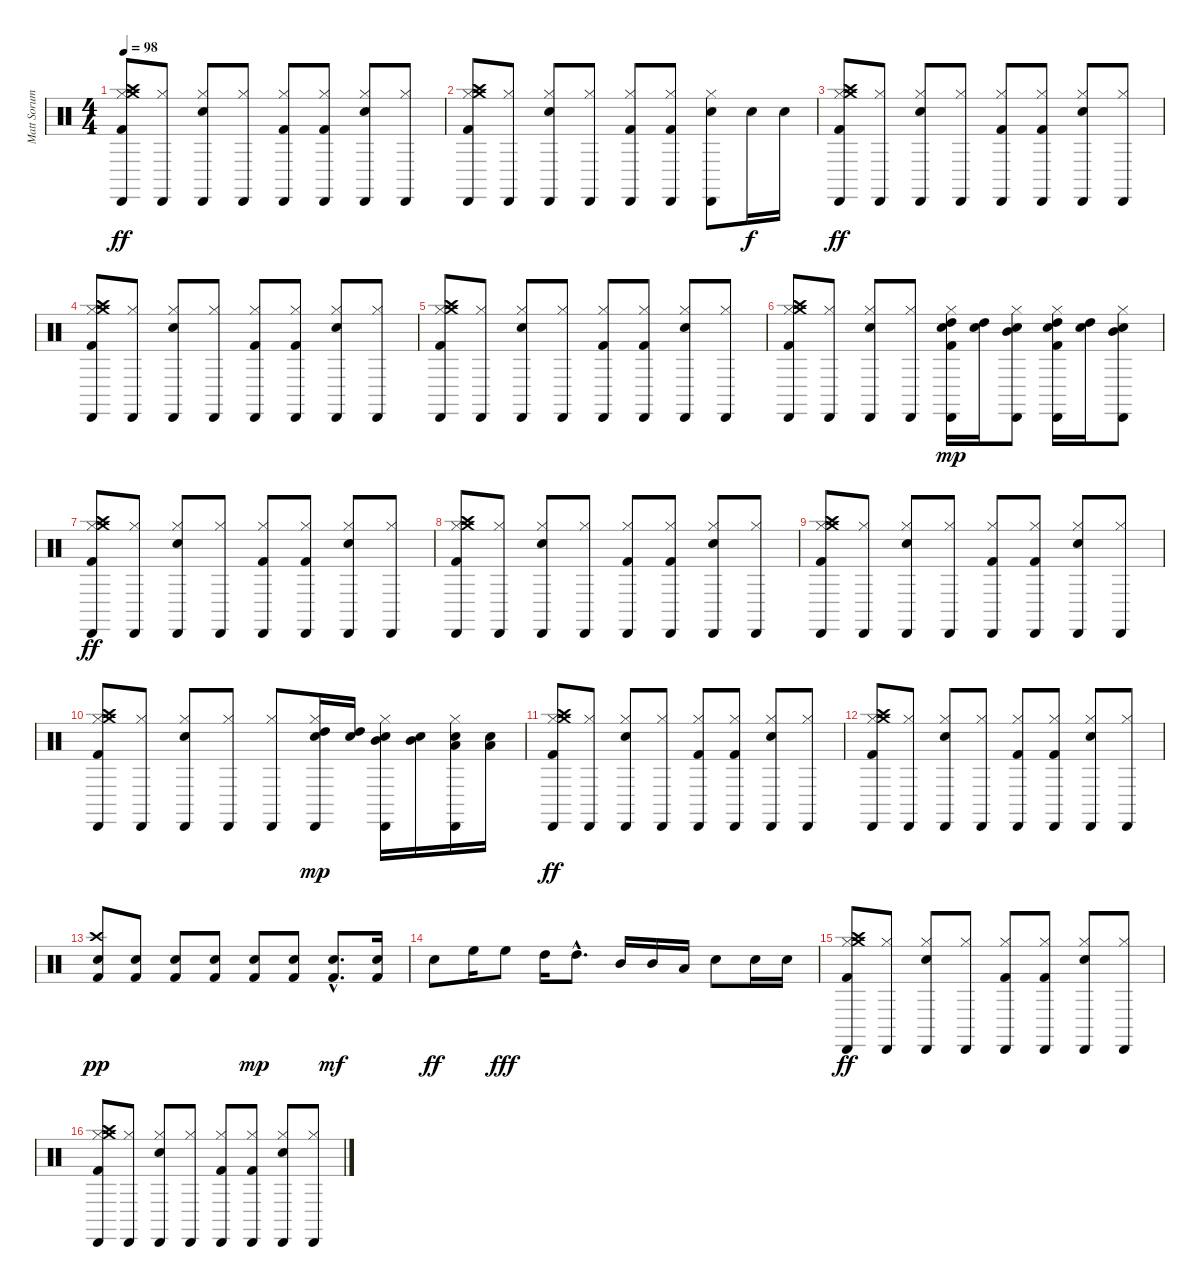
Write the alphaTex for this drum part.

\track ("Matt Sorum" "Matt Sorum") {instrument percussion}
\staff {score}
\articulation defaults
\ts (4 4)
\tempo 98
\clef neutral
\ks c
("Kick (hit) 2" "Hi-Hat (closed)" "Cabasa (hit)" "Crash medium (hit)" "Crash high (hit)").8{dy ff} ("Hi-Hat (closed)" "Cabasa (hit)").8 ("Snare (hit) 2" "Hi-Hat (closed)" "Cabasa (hit)").8 ("Hi-Hat (closed)" "Cabasa (hit)").8 ("Kick (hit) 2" "Hi-Hat (closed)" "Cabasa (hit)").8 ("Kick (hit) 2" "Hi-Hat (closed)" "Cabasa (hit)").8 ("Snare (hit) 2" "Hi-Hat (closed)" "Cabasa (hit)").8 ("Hi-Hat (closed)" "Cabasa (hit)").8 |
("Kick (hit) 2" "Hi-Hat (closed)" "Cabasa (hit)" "Crash medium (hit)" "Crash high (hit)").8 ("Hi-Hat (closed)" "Cabasa (hit)").8 ("Snare (hit) 2" "Hi-Hat (closed)" "Cabasa (hit)").8 ("Hi-Hat (closed)" "Cabasa (hit)").8 ("Kick (hit) 2" "Hi-Hat (closed)" "Cabasa (hit)").8 ("Kick (hit) 2" "Hi-Hat (closed)" "Cabasa (hit)").8 ("Snare (hit) 2" "Hi-Hat (closed)" "Cabasa (hit)").8 "Snare (hit) 2".16{dy f} "Snare (hit) 2".16 |
("Kick (hit) 2" "Hi-Hat (closed)" "Cabasa (hit)" "Crash medium (hit)" "Crash high (hit)").8{dy ff} ("Hi-Hat (closed)" "Cabasa (hit)").8 ("Snare (hit) 2" "Hi-Hat (closed)" "Cabasa (hit)").8 ("Hi-Hat (closed)" "Cabasa (hit)").8 ("Kick (hit) 2" "Hi-Hat (closed)" "Cabasa (hit)").8 ("Kick (hit) 2" "Hi-Hat (closed)" "Cabasa (hit)").8 ("Snare (hit) 2" "Hi-Hat (closed)" "Cabasa (hit)").8 ("Hi-Hat (closed)" "Cabasa (hit)").8 |
("Kick (hit) 2" "Hi-Hat (closed)" "Cabasa (hit)" "Crash medium (hit)" "Crash high (hit)").8 ("Hi-Hat (closed)" "Cabasa (hit)").8 ("Snare (hit) 2" "Hi-Hat (closed)" "Cabasa (hit)").8 ("Hi-Hat (closed)" "Cabasa (hit)").8 ("Kick (hit) 2" "Hi-Hat (closed)" "Cabasa (hit)").8 ("Kick (hit) 2" "Hi-Hat (closed)" "Cabasa (hit)").8 ("Snare (hit) 2" "Hi-Hat (closed)" "Cabasa (hit)").8 ("Hi-Hat (closed)" "Cabasa (hit)").8 |
("Kick (hit) 2" "Hi-Hat (closed)" "Cabasa (hit)" "Crash medium (hit)" "Crash high (hit)").8 ("Hi-Hat (closed)" "Cabasa (hit)").8 ("Snare (hit) 2" "Hi-Hat (closed)" "Cabasa (hit)").8 ("Hi-Hat (closed)" "Cabasa (hit)").8 ("Kick (hit) 2" "Hi-Hat (closed)" "Cabasa (hit)").8 ("Kick (hit) 2" "Hi-Hat (closed)" "Cabasa (hit)").8 ("Snare (hit) 2" "Hi-Hat (closed)" "Cabasa (hit)").8 ("Hi-Hat (closed)" "Cabasa (hit)").8 |
("Kick (hit) 2" "Hi-Hat (closed)" "Cabasa (hit)" "Crash medium (hit)" "Crash high (hit)").8 ("Hi-Hat (closed)" "Cabasa (hit)").8 ("Snare (hit) 2" "Hi-Hat (closed)" "Cabasa (hit)").8 ("Hi-Hat (closed)" "Cabasa (hit)").8 ("Kick (hit) 2" "High Tom (hit)" "Hi-Hat (closed)" "Cabasa (hit)" "Snare (hit) 2").16{dy mp} ("High Tom (hit)" "Snare (hit) 2").16 ("Mid Tom (hit)" "Hi-Hat (closed)" "Cabasa (hit)" "Snare (hit) 2").8 ("Kick (hit) 2" "High Tom (hit)" "Hi-Hat (closed)" "Cabasa (hit)" "Snare (hit) 2").16 ("High Tom (hit)" "Snare (hit) 2").16 ("Mid Tom (hit)" "Hi-Hat (closed)" "Cabasa (hit)" "Snare (hit) 2").8 |
("Kick (hit) 2" "Hi-Hat (closed)" "Cabasa (hit)" "Crash medium (hit)" "Crash high (hit)").8{dy ff} ("Hi-Hat (closed)" "Cabasa (hit)").8 ("Snare (hit) 2" "Hi-Hat (closed)" "Cabasa (hit)").8 ("Hi-Hat (closed)" "Cabasa (hit)").8 ("Kick (hit) 2" "Hi-Hat (closed)" "Cabasa (hit)").8 ("Kick (hit) 2" "Hi-Hat (closed)" "Cabasa (hit)").8 ("Snare (hit) 2" "Hi-Hat (closed)" "Cabasa (hit)").8 ("Hi-Hat (closed)" "Cabasa (hit)").8 |
("Kick (hit) 2" "Hi-Hat (closed)" "Cabasa (hit)" "Crash medium (hit)" "Crash high (hit)").8 ("Hi-Hat (closed)" "Cabasa (hit)").8 ("Snare (hit) 2" "Hi-Hat (closed)" "Cabasa (hit)").8 ("Hi-Hat (closed)" "Cabasa (hit)").8 ("Kick (hit) 2" "Hi-Hat (closed)" "Cabasa (hit)").8 ("Kick (hit) 2" "Hi-Hat (closed)" "Cabasa (hit)").8 ("Snare (hit) 2" "Hi-Hat (closed)" "Cabasa (hit)").8 ("Hi-Hat (closed)" "Cabasa (hit)").8 |
("Kick (hit) 2" "Hi-Hat (closed)" "Cabasa (hit)" "Crash medium (hit)" "Crash high (hit)").8 ("Hi-Hat (closed)" "Cabasa (hit)").8 ("Snare (hit) 2" "Hi-Hat (closed)" "Cabasa (hit)").8 ("Hi-Hat (closed)" "Cabasa (hit)").8 ("Kick (hit) 2" "Hi-Hat (closed)" "Cabasa (hit)").8 ("Kick (hit) 2" "Hi-Hat (closed)" "Cabasa (hit)").8 ("Snare (hit) 2" "Hi-Hat (closed)" "Cabasa (hit)").8 ("Hi-Hat (closed)" "Cabasa (hit)").8 |
("Kick (hit) 2" "Hi-Hat (closed)" "Cabasa (hit)" "Crash medium (hit)" "Crash high (hit)").8 ("Hi-Hat (closed)" "Cabasa (hit)").8 ("Snare (hit) 2" "Hi-Hat (closed)" "Cabasa (hit)").8 ("Hi-Hat (closed)" "Cabasa (hit)").8 ("Hi-Hat (closed)" "Cabasa (hit)").8 ("High Tom (hit)" "Hi-Hat (closed)" "Cabasa (hit)" "Snare (hit) 2").16{dy mp} ("High Tom (hit)" "Snare (hit) 2").16 ("Mid Tom (hit)" "Hi-Hat (closed)" "Cabasa (hit)" "Snare (hit) 2").16 ("Mid Tom (hit)" "Snare (hit) 2").16 ("Low Tom (hit)" "Hi-Hat (closed)" "Cabasa (hit)" "Snare (hit) 2").16 ("Low Tom (hit)" "Snare (hit) 2").16 |
("Kick (hit) 2" "Hi-Hat (closed)" "Cabasa (hit)" "Crash medium (hit)" "Crash high (hit)").8{dy ff} ("Hi-Hat (closed)" "Cabasa (hit)").8 ("Snare (hit) 2" "Hi-Hat (closed)" "Cabasa (hit)").8 ("Hi-Hat (closed)" "Cabasa (hit)").8 ("Kick (hit) 2" "Hi-Hat (closed)" "Cabasa (hit)").8 ("Kick (hit) 2" "Hi-Hat (closed)" "Cabasa (hit)").8 ("Snare (hit) 2" "Hi-Hat (closed)" "Cabasa (hit)").8 ("Hi-Hat (closed)" "Cabasa (hit)").8 |
("Kick (hit) 2" "Hi-Hat (closed)" "Cabasa (hit)" "Crash medium (hit)" "Crash high (hit)").8 ("Hi-Hat (closed)" "Cabasa (hit)").8 ("Snare (hit) 2" "Hi-Hat (closed)" "Cabasa (hit)").8 ("Hi-Hat (closed)" "Cabasa (hit)").8 ("Kick (hit) 2" "Hi-Hat (closed)" "Cabasa (hit)").8 ("Kick (hit) 2" "Hi-Hat (closed)" "Cabasa (hit)").8 ("Snare (hit) 2" "Hi-Hat (closed)" "Cabasa (hit)").8 ("Hi-Hat (closed)" "Cabasa (hit)").8 |
("Kick (hit) 2" "Snare (hit) 2" "Crash high (hit)").8{dy pp} ("Kick (hit) 2" "Snare (hit) 2").8 ("Kick (hit) 2" "Snare (hit) 2").8 ("Kick (hit) 2" "Snare (hit) 2").8 ("Kick (hit) 2" "Snare (hit) 2").8{dy mp} ("Kick (hit) 2" "Snare (hit) 2").8 ("Kick (hit) 2"{hac} "Snare (hit) 2"{hac}).8{d dy mf} ("Kick (hit) 2" "Snare (hit) 2").16 |
"Snare (hit) 2".8{dy ff} "High Floor Tom (hit)".16 "High Floor Tom (hit)".8{dy fff} "High Tom (hit)".16 "High Tom (hit)"{hac}.8{d} "Mid Tom (hit)".16 "Mid Tom (hit)".16 "Low Tom (hit)".16 "Snare (hit) 2".8 "Snare (hit) 2".16 "Snare (hit) 2".16 |
("Kick (hit) 2" "Hi-Hat (closed)" "Cabasa (hit)" "Crash medium (hit)" "Crash high (hit)").8{dy ff volume 16} ("Hi-Hat (closed)" "Cabasa (hit)").8 ("Snare (hit) 2" "Hi-Hat (closed)" "Cabasa (hit)").8 ("Hi-Hat (closed)" "Cabasa (hit)").8 ("Kick (hit) 2" "Hi-Hat (closed)" "Cabasa (hit)").8 ("Kick (hit) 2" "Hi-Hat (closed)" "Cabasa (hit)").8 ("Snare (hit) 2" "Hi-Hat (closed)" "Cabasa (hit)").8 ("Hi-Hat (closed)" "Cabasa (hit)").8 |
("Kick (hit) 2" "Hi-Hat (closed)" "Cabasa (hit)" "Crash medium (hit)" "Crash high (hit)").8 ("Hi-Hat (closed)" "Cabasa (hit)").8 ("Snare (hit) 2" "Hi-Hat (closed)" "Cabasa (hit)").8 ("Hi-Hat (closed)" "Cabasa (hit)").8 ("Kick (hit) 2" "Hi-Hat (closed)" "Cabasa (hit)").8 ("Kick (hit) 2" "Hi-Hat (closed)" "Cabasa (hit)").8 ("Snare (hit) 2" "Hi-Hat (closed)" "Cabasa (hit)").8 ("Hi-Hat (closed)" "Cabasa (hit)").8
